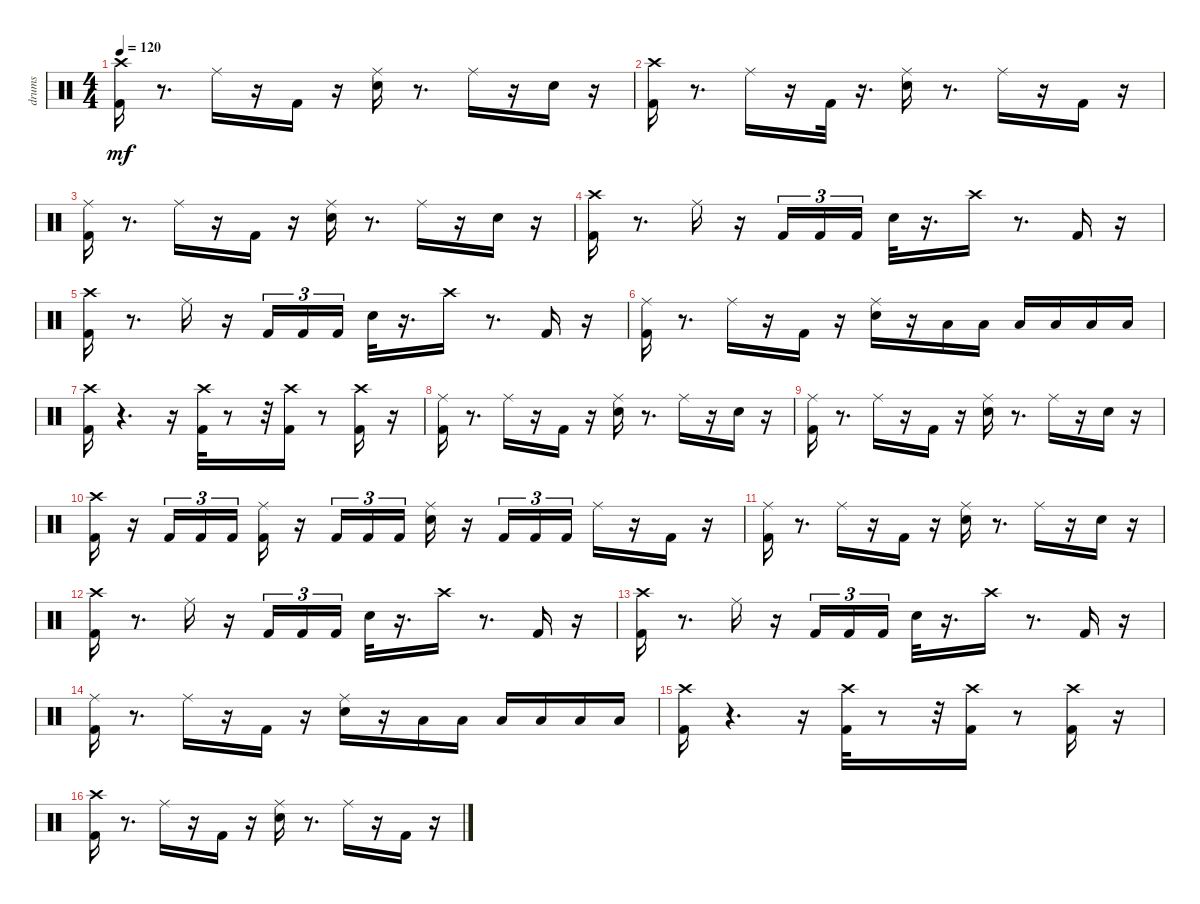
\track ("drums               " "drums     ") {instrument percussion}
\staff {score}
\articulation defaults
\ts (4 4)
\tempo 120
\clef neutral
\ks c
("Kick (hit) 2" "Crash high (hit)").16{dy mf} r.8{d} "Ride (middle)".16 r.16 "Kick (hit) 2".16 r.16 ("Ride (middle)" "Snare (hit) 2").16 r.8{d} "Ride (middle)".16 r.16 "Snare (hit) 2".16 r.16 |
("Crash high (hit)" "Kick (hit) 2").16 r.8{d} "Ride (middle)".16 r.16 "Kick (hit) 2".32 r.16{d} ("Ride (middle)" "Snare (hit) 2").16 r.8{d} "Ride (middle)".16 r.16 "Kick (hit) 2".16 r.16 |
("Kick (hit) 2" "Ride (middle)").16 r.8{d} "Ride (middle)".16 r.16 "Kick (hit) 2".16 r.16 ("Ride (middle)" "Snare (hit) 2").16 r.8{d} "Ride (middle)".16 r.16 "Snare (hit) 2".16 r.16 |
("Kick (hit) 2" "Crash high (hit)").16 r.8{d} "Ride (middle)".16 r.16 "Kick (hit) 2".16{tu (3 2)} "Kick (hit) 2".16{tu (3 2)} "Kick (hit) 2".16{tu (3 2)} "Snare (hit) 2".32 r.16{d} "Crash high (hit)".16 r.8{d} "Kick (hit) 2".16 r.16 |
("Kick (hit) 2" "Crash high (hit)").16 r.8{d} "Ride (middle)".16 r.16 "Kick (hit) 2".16{tu (3 2)} "Kick (hit) 2".16{tu (3 2)} "Kick (hit) 2".16{tu (3 2)} "Snare (hit) 2".32 r.16{d} "Crash high (hit)".16 r.8{d} "Kick (hit) 2".16 r.16 |
("Kick (hit) 2" "Ride (middle)").16 r.8{d} "Ride (middle)".16 r.16 "Kick (hit) 2".16 r.16 ("Snare (hit) 2" "Ride (middle)").16 r.16 "Low Tom (hit)".16 "Low Tom (hit)".16 "Low Tom (hit)".16 "Low Floor Tom (hit)".16 "Low Floor Tom (hit)".16 "Low Floor Tom (hit)".16 |
("Kick (hit) 2" "Crash high (hit)").16 r.4{d} r.16 ("Crash high (hit)" "Kick (hit) 2").32 r.8 r.32 ("Kick (hit) 2" "Crash high (hit)").16 r.8 ("Kick (hit) 2" "Crash high (hit)").16 r.16 |
("Kick (hit) 2" "Ride (middle)").16 r.8{d} "Ride (middle)".16 r.16 "Kick (hit) 2".16 r.16 ("Ride (middle)" "Snare (hit) 2").16 r.8{d} "Ride (middle)".16 r.16 "Snare (hit) 2".16 r.16 |
("Kick (hit) 2" "Ride (middle)").16 r.8{d} "Ride (middle)".16 r.16 "Kick (hit) 2".16 r.16 ("Ride (middle)" "Snare (hit) 2").16 r.8{d} "Ride (middle)".16 r.16 "Snare (hit) 2".16 r.16 |
("Crash high (hit)" "Kick (hit) 2").16 r.16 "Kick (hit) 2".16{tu (3 2)} "Kick (hit) 2".16{tu (3 2)} "Kick (hit) 2".16{tu (3 2)} ("Ride (middle)" "Kick (hit) 2").16 r.16 "Kick (hit) 2".16{tu (3 2)} "Kick (hit) 2".16{tu (3 2)} "Kick (hit) 2".16{tu (3 2)} ("Ride (middle)" "Snare (hit) 2").16 r.16 "Kick (hit) 2".16{tu (3 2)} "Kick (hit) 2".16{tu (3 2)} "Kick (hit) 2".16{tu (3 2)} "Ride (middle)".16 r.16 "Kick (hit) 2".16 r.16 |
("Kick (hit) 2" "Ride (middle)").16 r.8{d} "Ride (middle)".16 r.16 "Kick (hit) 2".16 r.16 ("Ride (middle)" "Snare (hit) 2").16 r.8{d} "Ride (middle)".16 r.16 "Snare (hit) 2".16 r.16 |
("Kick (hit) 2" "Crash high (hit)").16 r.8{d} "Ride (middle)".16 r.16 "Kick (hit) 2".16{tu (3 2)} "Kick (hit) 2".16{tu (3 2)} "Kick (hit) 2".16{tu (3 2)} "Snare (hit) 2".32 r.16{d} "Crash high (hit)".16 r.8{d} "Kick (hit) 2".16 r.16 |
("Kick (hit) 2" "Crash high (hit)").16 r.8{d} "Ride (middle)".16 r.16 "Kick (hit) 2".16{tu (3 2)} "Kick (hit) 2".16{tu (3 2)} "Kick (hit) 2".16{tu (3 2)} "Snare (hit) 2".32 r.16{d} "Crash high (hit)".16 r.8{d} "Kick (hit) 2".16 r.16 |
("Kick (hit) 2" "Ride (middle)").16 r.8{d} "Ride (middle)".16 r.16 "Kick (hit) 2".16 r.16 ("Snare (hit) 2" "Ride (middle)").16 r.16 "Low Tom (hit)".16 "Low Tom (hit)".16 "Low Tom (hit)".16 "Low Floor Tom (hit)".16 "Low Floor Tom (hit)".16 "Low Floor Tom (hit)".16 |
("Kick (hit) 2" "Crash high (hit)").16 r.4{d} r.16 ("Crash high (hit)" "Kick (hit) 2").32 r.8 r.32 ("Kick (hit) 2" "Crash high (hit)").16 r.8 ("Kick (hit) 2" "Crash high (hit)").16 r.16 |
("Kick (hit) 2" "Crash high (hit)").16 r.8{d} "Ride (middle)".16 r.16 "Kick (hit) 2".16 r.16 ("Ride (middle)" "Snare (hit) 2").16 r.8{d} "Ride (middle)".16 r.16 "Kick (hit) 2".16 r.16
